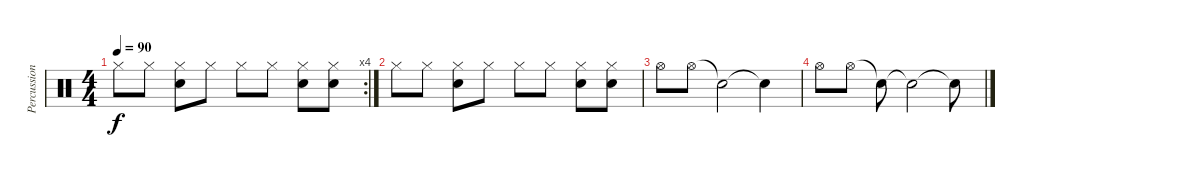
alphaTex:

\track ("Percussion" "Percussion") {instrument percussion}
\staff {score}
\articulation defaults
\rc 4
\ts (4 4)
\tempo 90
\clef neutral
\ks c "Hi-Hat (closed)".8{dy f} "Hi-Hat (closed)".8
("Snare (hit) 2" "Hi-Hat (closed)").8 "Hi-Hat (closed)".8 "Hi-Hat (closed)".8 "Hi-Hat (closed)".8 ("Snare (hit) 2" "Hi-Hat (closed)").8 ("Snare (hit) 2" "Hi-Hat (closed)").8 |
"Hi-Hat (closed)".8 "Hi-Hat (closed)".8 ("Snare (hit) 2" "Hi-Hat (closed)").8 "Hi-Hat (closed)".8 "Hi-Hat (closed)".8 "Hi-Hat (closed)".8 ("Snare (hit) 2" "Hi-Hat (closed)").8 ("Snare (hit) 2" "Hi-Hat (closed)").8 |
"Hi-Hat (open)".8 "Hi-Hat (open)".8 "Snare (hit)"{t}.2 "Snare (hit)"{t}.4 |
"Hi-Hat (open)".8 "Hi-Hat (open)".8 "Snare (hit)"{t}.8 "Snare (hit)"{t}.2 "Snare (hit)"{t}.8
